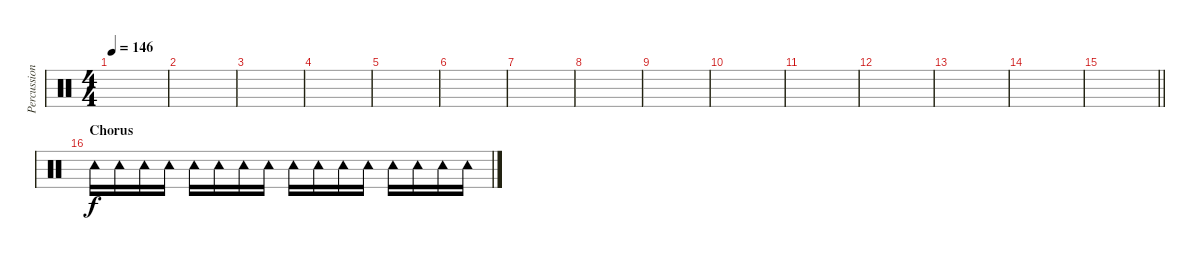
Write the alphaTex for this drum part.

\track ("Percussion" "Percussion") {instrument percussion}
\staff {score}
\articulation defaults
\ts (4 4)
\tempo 146
\clef neutral
\ks c
|
|
|
|
|
|
|
|
|
|
|
|
|
|
\barLineRight lightlight
|
\section ("" "Chorus")
"Tambourine (hit)".16 "Tambourine (hit)".16 "Tambourine (hit)".16 "Tambourine (hit)".16 "Tambourine (hit)".16 "Tambourine (hit)".16 "Tambourine (hit)".16 "Tambourine (hit)".16 "Tambourine (hit)".16 "Tambourine (hit)".16 "Tambourine (hit)".16 "Tambourine (hit)".16 "Tambourine (hit)".16 "Tambourine (hit)".16 "Tambourine (hit)".16 "Tambourine (hit)".16
